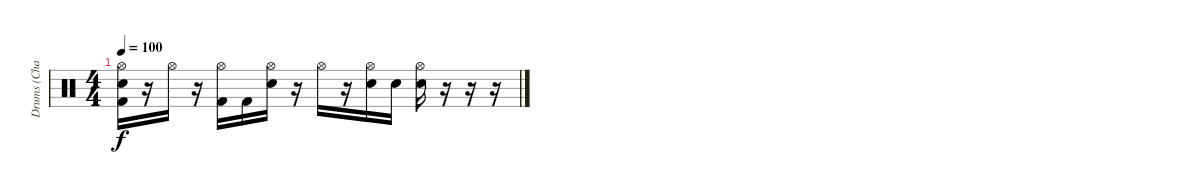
\track ("Drums (Chad Smith)" "Drums (Cha") {instrument percussion}
\staff {score}
\articulation defaults
\ts (4 4)
\tempo 100
\clef neutral
\ks c
("Hi-Hat (open)" "Electric Snare (hit)" "Kick (hit) 2").16{dy f} r.16 "Hi-Hat (open)".16 r.16 ("Hi-Hat (open)" "Kick (hit) 2").16 "Kick (hit) 2".16 ("Hi-Hat (open)" "Electric Snare (hit)").16 r.16 "Hi-Hat (open)".16 r.16 ("Hi-Hat (open)" "Electric Snare (hit)").16 "Electric Snare (hit)".16 ("Hi-Hat (open)" "Electric Snare (hit)").16 r.16 r.16 r.16
